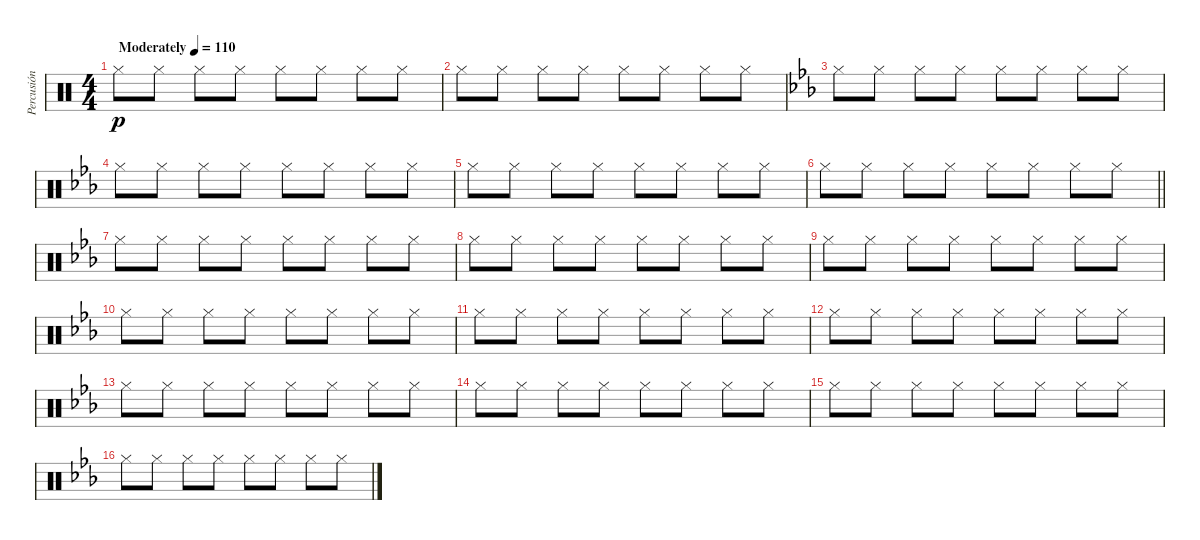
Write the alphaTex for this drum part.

\track ("Percusión" "Percusión") {instrument percussion}
\staff {score}
\articulation defaults
\ts (4 4)
\tempo (110 "Moderately")
\clef neutral
\ks c "Hi-Hat (closed)".8{dy p} "Hi-Hat (closed)".8 "Hi-Hat (closed)".8 "Hi-Hat (closed)".8 "Hi-Hat (closed)".8 "Hi-Hat (closed)".8 "Hi-Hat (closed)".8 "Hi-Hat (closed)".8
|
"Hi-Hat (closed)".8 "Hi-Hat (closed)".8 "Hi-Hat (closed)".8 "Hi-Hat (closed)".8 "Hi-Hat (closed)".8 "Hi-Hat (closed)".8 "Hi-Hat (closed)".8 "Hi-Hat (closed)".8 |
\ks eb "Hi-Hat (closed)".8 "Hi-Hat (closed)".8 "Hi-Hat (closed)".8 "Hi-Hat (closed)".8 "Hi-Hat (closed)".8 "Hi-Hat (closed)".8 "Hi-Hat (closed)".8 "Hi-Hat (closed)".8
|
"Hi-Hat (closed)".8 "Hi-Hat (closed)".8 "Hi-Hat (closed)".8 "Hi-Hat (closed)".8 "Hi-Hat (closed)".8 "Hi-Hat (closed)".8 "Hi-Hat (closed)".8 "Hi-Hat (closed)".8 |
"Hi-Hat (closed)".8 "Hi-Hat (closed)".8 "Hi-Hat (closed)".8 "Hi-Hat (closed)".8 "Hi-Hat (closed)".8 "Hi-Hat (closed)".8 "Hi-Hat (closed)".8 "Hi-Hat (closed)".8 |
\barLineRight lightlight "Hi-Hat (closed)".8 "Hi-Hat (closed)".8 "Hi-Hat (closed)".8 "Hi-Hat (closed)".8 "Hi-Hat (closed)".8 "Hi-Hat (closed)".8 "Hi-Hat (closed)".8 "Hi-Hat (closed)".8
|
"Hi-Hat (closed)".8 "Hi-Hat (closed)".8 "Hi-Hat (closed)".8 "Hi-Hat (closed)".8 "Hi-Hat (closed)".8 "Hi-Hat (closed)".8 "Hi-Hat (closed)".8 "Hi-Hat (closed)".8 |
"Hi-Hat (closed)".8 "Hi-Hat (closed)".8 "Hi-Hat (closed)".8 "Hi-Hat (closed)".8 "Hi-Hat (closed)".8 "Hi-Hat (closed)".8 "Hi-Hat (closed)".8 "Hi-Hat (closed)".8 |
"Hi-Hat (closed)".8 "Hi-Hat (closed)".8 "Hi-Hat (closed)".8 "Hi-Hat (closed)".8 "Hi-Hat (closed)".8 "Hi-Hat (closed)".8 "Hi-Hat (closed)".8 "Hi-Hat (closed)".8 |
"Hi-Hat (closed)".8 "Hi-Hat (closed)".8 "Hi-Hat (closed)".8 "Hi-Hat (closed)".8 "Hi-Hat (closed)".8 "Hi-Hat (closed)".8 "Hi-Hat (closed)".8 "Hi-Hat (closed)".8 |
"Hi-Hat (closed)".8 "Hi-Hat (closed)".8 "Hi-Hat (closed)".8 "Hi-Hat (closed)".8 "Hi-Hat (closed)".8 "Hi-Hat (closed)".8 "Hi-Hat (closed)".8 "Hi-Hat (closed)".8 |
"Hi-Hat (closed)".8 "Hi-Hat (closed)".8 "Hi-Hat (closed)".8 "Hi-Hat (closed)".8 "Hi-Hat (closed)".8 "Hi-Hat (closed)".8 "Hi-Hat (closed)".8 "Hi-Hat (closed)".8 |
"Hi-Hat (closed)".8 "Hi-Hat (closed)".8 "Hi-Hat (closed)".8 "Hi-Hat (closed)".8 "Hi-Hat (closed)".8 "Hi-Hat (closed)".8 "Hi-Hat (closed)".8 "Hi-Hat (closed)".8 |
"Hi-Hat (closed)".8 "Hi-Hat (closed)".8 "Hi-Hat (closed)".8 "Hi-Hat (closed)".8 "Hi-Hat (closed)".8 "Hi-Hat (closed)".8 "Hi-Hat (closed)".8 "Hi-Hat (closed)".8 |
"Hi-Hat (closed)".8 "Hi-Hat (closed)".8 "Hi-Hat (closed)".8 "Hi-Hat (closed)".8 "Hi-Hat (closed)".8 "Hi-Hat (closed)".8 "Hi-Hat (closed)".8 "Hi-Hat (closed)".8 |
"Hi-Hat (closed)".8 "Hi-Hat (closed)".8 "Hi-Hat (closed)".8 "Hi-Hat (closed)".8 "Hi-Hat (closed)".8 "Hi-Hat (closed)".8 "Hi-Hat (closed)".8 "Hi-Hat (closed)".8
